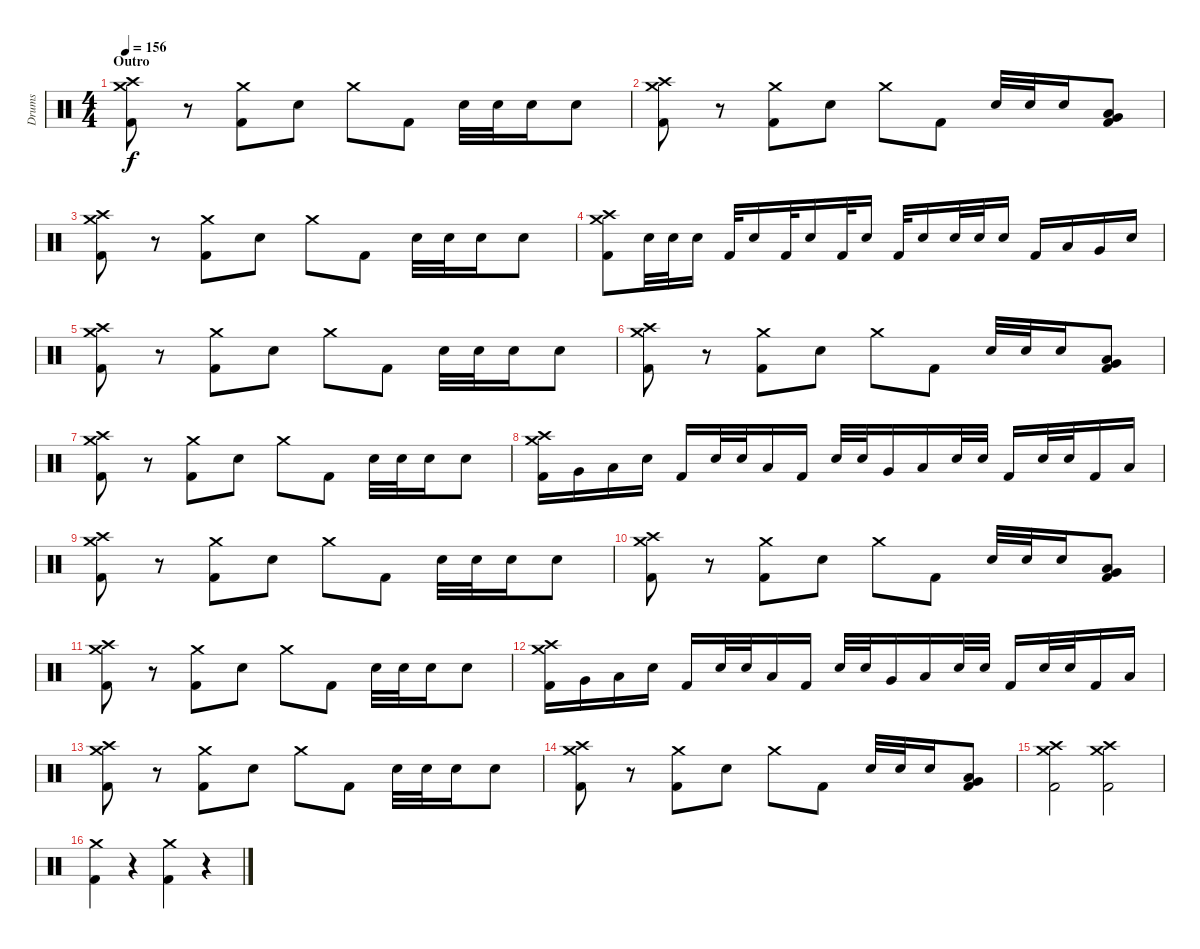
\track ("Drums" "Drums") {instrument percussion}
\staff {score}
\articulation defaults
\ts (4 4)
\section ("" "Outro")
\tempo 156
\clef neutral
\ks c
("Crash medium (hit)" "Crash high (hit)" "Kick (hit) 2").8{dy f} r.8 ("Crash medium (hit)" "Kick (hit) 2").8 "Electric Snare (hit)".8 "Crash medium (hit)".8 "Kick (hit) 2".8 "Electric Snare (hit)".32 "Electric Snare (hit)".32 "Electric Snare (hit)".16 "Electric Snare (hit)".8 |
("Crash medium (hit)" "Crash high (hit)" "Kick (hit) 2").8 r.8 ("Crash medium (hit)" "Kick (hit) 2").8 "Electric Snare (hit)".8 "Crash medium (hit)".8 "Kick (hit) 2".8 "Electric Snare (hit)".32 "Electric Snare (hit)".32 "Electric Snare (hit)".16 ("Very Low Tom (hit)" "Low Floor Tom (hit)" "Kick (hit) 2").8 |
("Crash medium (hit)" "Crash high (hit)" "Kick (hit) 2").8 r.8 ("Crash medium (hit)" "Kick (hit) 2").8 "Electric Snare (hit)".8 "Crash medium (hit)".8 "Kick (hit) 2".8 "Electric Snare (hit)".32 "Electric Snare (hit)".32 "Electric Snare (hit)".16 "Electric Snare (hit)".8 |
("Crash medium (hit)" "Crash high (hit)" "Kick (hit) 2").8 "Electric Snare (hit)".32 "Electric Snare (hit)".32 "Electric Snare (hit)".16 "Kick (hit) 2".32 "Electric Snare (hit)".16 "Kick (hit) 2".32 "Electric Snare (hit)".16 "Kick (hit) 2".32 "Electric Snare (hit)".16 "Kick (hit) 2".32 "Electric Snare (hit)".16 "Electric Snare (hit)".32 "Electric Snare (hit)".32 "Electric Snare (hit)".16 "Kick (hit) 2".16 "Low Tom (hit)".16 "Very Low Tom (hit)".16 "Electric Snare (hit)".16 |
("Crash medium (hit)" "Crash high (hit)" "Kick (hit) 2").8 r.8 ("Crash medium (hit)" "Kick (hit) 2").8 "Electric Snare (hit)".8 "Crash medium (hit)".8 "Kick (hit) 2".8 "Electric Snare (hit)".32 "Electric Snare (hit)".32 "Electric Snare (hit)".16 "Electric Snare (hit)".8 |
("Crash medium (hit)" "Crash high (hit)" "Kick (hit) 2").8 r.8 ("Crash medium (hit)" "Kick (hit) 2").8 "Electric Snare (hit)".8 "Crash medium (hit)".8 "Kick (hit) 2".8 "Electric Snare (hit)".32 "Electric Snare (hit)".32 "Electric Snare (hit)".16 ("Very Low Tom (hit)" "Low Floor Tom (hit)" "Kick (hit) 2").8 |
("Crash medium (hit)" "Crash high (hit)" "Kick (hit) 2").8 r.8 ("Crash medium (hit)" "Kick (hit) 2").8 "Electric Snare (hit)".8 "Crash medium (hit)".8 "Kick (hit) 2".8 "Electric Snare (hit)".32 "Electric Snare (hit)".32 "Electric Snare (hit)".16 "Electric Snare (hit)".8 |
("Crash medium (hit)" "Crash high (hit)" "Kick (hit) 2").16 "Very Low Tom (hit)".16 "Low Floor Tom (hit)".16 "Electric Snare (hit)".16 "Kick (hit) 2".16 "Electric Snare (hit)".32 "Electric Snare (hit)".32 "Low Floor Tom (hit)".16 "Kick (hit) 2".16 "Electric Snare (hit)".32 "Electric Snare (hit)".32 "Very Low Tom (hit)".16 "Low Floor Tom (hit)".16 "Electric Snare (hit)".32 "Electric Snare (hit)".32 "Kick (hit) 2".16 "Electric Snare (hit)".32 "Electric Snare (hit)".32 "Kick (hit) 2".16 "Low Floor Tom (hit)".16 |
("Crash medium (hit)" "Crash high (hit)" "Kick (hit) 2").8 r.8 ("Crash medium (hit)" "Kick (hit) 2").8 "Electric Snare (hit)".8 "Crash medium (hit)".8 "Kick (hit) 2".8 "Electric Snare (hit)".32 "Electric Snare (hit)".32 "Electric Snare (hit)".16 "Electric Snare (hit)".8 |
("Crash medium (hit)" "Crash high (hit)" "Kick (hit) 2").8 r.8 ("Crash medium (hit)" "Kick (hit) 2").8 "Electric Snare (hit)".8 "Crash medium (hit)".8 "Kick (hit) 2".8 "Electric Snare (hit)".32 "Electric Snare (hit)".32 "Electric Snare (hit)".16 ("Very Low Tom (hit)" "Low Floor Tom (hit)" "Kick (hit) 2").8 |
("Crash medium (hit)" "Crash high (hit)" "Kick (hit) 2").8 r.8 ("Crash medium (hit)" "Kick (hit) 2").8 "Electric Snare (hit)".8 "Crash medium (hit)".8 "Kick (hit) 2".8 "Electric Snare (hit)".32 "Electric Snare (hit)".32 "Electric Snare (hit)".16 "Electric Snare (hit)".8 |
("Crash medium (hit)" "Crash high (hit)" "Kick (hit) 2").16 "Very Low Tom (hit)".16 "Low Floor Tom (hit)".16 "Electric Snare (hit)".16 "Kick (hit) 2".16 "Electric Snare (hit)".32 "Electric Snare (hit)".32 "Low Floor Tom (hit)".16 "Kick (hit) 2".16 "Electric Snare (hit)".32 "Electric Snare (hit)".32 "Very Low Tom (hit)".16 "Low Floor Tom (hit)".16 "Electric Snare (hit)".32 "Electric Snare (hit)".32 "Kick (hit) 2".16 "Electric Snare (hit)".32 "Electric Snare (hit)".32 "Kick (hit) 2".16 "Low Floor Tom (hit)".16 |
("Crash medium (hit)" "Crash high (hit)" "Kick (hit) 2").8 r.8 ("Crash medium (hit)" "Kick (hit) 2").8 "Electric Snare (hit)".8 "Crash medium (hit)".8 "Kick (hit) 2".8 "Electric Snare (hit)".32 "Electric Snare (hit)".32 "Electric Snare (hit)".16 "Electric Snare (hit)".8 |
("Crash medium (hit)" "Crash high (hit)" "Kick (hit) 2").8 r.8 ("Crash medium (hit)" "Kick (hit) 2").8 "Electric Snare (hit)".8 "Crash medium (hit)".8 "Kick (hit) 2".8 "Electric Snare (hit)".32 "Electric Snare (hit)".32 "Electric Snare (hit)".16 ("Very Low Tom (hit)" "Low Floor Tom (hit)" "Kick (hit) 2").8 |
("Crash medium (hit)" "Crash high (hit)" "Kick (hit) 2").2 ("Crash medium (hit)" "Crash high (hit)" "Kick (hit) 2").2 |
("Crash medium (hit)" "Kick (hit) 2").4 r.4 ("Crash medium (hit)" "Kick (hit) 2").4 r.4
